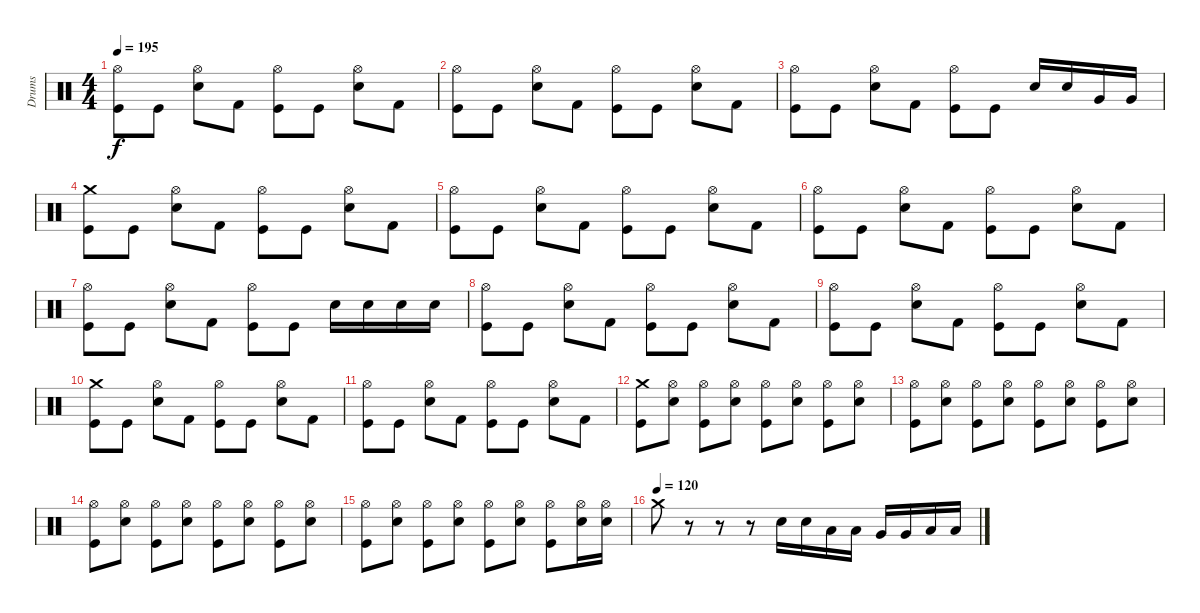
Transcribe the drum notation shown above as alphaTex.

\track ("Drums" "Drums") {instrument percussion}
\staff {score}
\articulation defaults
\ts (4 4)
\tempo 195
\clef neutral
\ks c
("Hi-Hat (open)" "Kick (hit)").8{dy f} "Kick (hit)".8 ("Hi-Hat (open)" "Electric Snare (hit)").8 "Kick (hit) 2".8 ("Hi-Hat (open)" "Kick (hit)").8 "Kick (hit)".8 ("Hi-Hat (open)" "Electric Snare (hit)").8 "Kick (hit) 2".8 |
("Hi-Hat (open)" "Kick (hit)").8 "Kick (hit)".8 ("Hi-Hat (open)" "Electric Snare (hit)").8 "Kick (hit) 2".8 ("Hi-Hat (open)" "Kick (hit)").8 "Kick (hit)".8 ("Hi-Hat (open)" "Electric Snare (hit)").8 "Kick (hit) 2".8 |
("Hi-Hat (open)" "Kick (hit)").8 "Kick (hit)".8 ("Hi-Hat (open)" "Electric Snare (hit)").8 "Kick (hit) 2".8 ("Hi-Hat (open)" "Kick (hit)").8 "Kick (hit)".8 "Electric Snare (hit)".16 "Electric Snare (hit)".16 "Very Low Tom (hit)".16 "Very Low Tom (hit)".16 |
("Crash medium (hit)" "Kick (hit)").8 "Kick (hit)".8 ("Hi-Hat (open)" "Electric Snare (hit)").8 "Kick (hit) 2".8 ("Hi-Hat (open)" "Kick (hit)").8 "Kick (hit)".8 ("Hi-Hat (open)" "Electric Snare (hit)").8 "Kick (hit) 2".8 |
("Hi-Hat (open)" "Kick (hit)").8 "Kick (hit)".8 ("Hi-Hat (open)" "Electric Snare (hit)").8 "Kick (hit) 2".8 ("Hi-Hat (open)" "Kick (hit)").8 "Kick (hit)".8 ("Hi-Hat (open)" "Electric Snare (hit)").8 "Kick (hit) 2".8 |
("Hi-Hat (open)" "Kick (hit)").8 "Kick (hit)".8 ("Hi-Hat (open)" "Electric Snare (hit)").8 "Kick (hit) 2".8 ("Hi-Hat (open)" "Kick (hit)").8 "Kick (hit)".8 ("Hi-Hat (open)" "Electric Snare (hit)").8 "Kick (hit) 2".8 |
("Hi-Hat (open)" "Kick (hit)").8 "Kick (hit)".8 ("Hi-Hat (open)" "Electric Snare (hit)").8 "Kick (hit) 2".8 ("Hi-Hat (open)" "Kick (hit)").8 "Kick (hit)".8 "Electric Snare (hit)".16 "Electric Snare (hit)".16 "Electric Snare (hit)".16 "Electric Snare (hit)".16 |
("Hi-Hat (open)" "Kick (hit)").8 "Kick (hit)".8 ("Hi-Hat (open)" "Electric Snare (hit)").8 "Kick (hit) 2".8 ("Hi-Hat (open)" "Kick (hit)").8 "Kick (hit)".8 ("Hi-Hat (open)" "Electric Snare (hit)").8 "Kick (hit) 2".8 |
("Hi-Hat (open)" "Kick (hit)").8 "Kick (hit)".8 ("Hi-Hat (open)" "Electric Snare (hit)").8 "Kick (hit) 2".8 ("Hi-Hat (open)" "Kick (hit)").8 "Kick (hit)".8 ("Hi-Hat (open)" "Electric Snare (hit)").8 "Kick (hit) 2".8 |
("Crash medium (hit)" "Kick (hit)").8 "Kick (hit)".8 ("Hi-Hat (open)" "Electric Snare (hit)").8 "Kick (hit) 2".8 ("Hi-Hat (open)" "Kick (hit)").8 "Kick (hit)".8 ("Hi-Hat (open)" "Electric Snare (hit)").8 "Kick (hit) 2".8 |
("Hi-Hat (open)" "Kick (hit)").8 "Kick (hit)".8 ("Hi-Hat (open)" "Electric Snare (hit)").8 "Kick (hit) 2".8 ("Hi-Hat (open)" "Kick (hit)").8 "Kick (hit)".8 ("Hi-Hat (open)" "Electric Snare (hit)").8 "Kick (hit) 2".8 |
("Crash medium (hit)" "Kick (hit)").8 ("Hi-Hat (open)" "Electric Snare (hit)").8 ("Hi-Hat (open)" "Kick (hit)").8 ("Hi-Hat (open)" "Electric Snare (hit)").8 ("Hi-Hat (open)" "Kick (hit)").8 ("Hi-Hat (open)" "Electric Snare (hit)").8 ("Hi-Hat (open)" "Kick (hit)").8 ("Hi-Hat (open)" "Electric Snare (hit)").8 |
("Hi-Hat (open)" "Kick (hit)").8 ("Hi-Hat (open)" "Electric Snare (hit)").8 ("Hi-Hat (open)" "Kick (hit)").8 ("Hi-Hat (open)" "Electric Snare (hit)").8 ("Hi-Hat (open)" "Kick (hit)").8 ("Hi-Hat (open)" "Electric Snare (hit)").8 ("Hi-Hat (open)" "Kick (hit)").8 ("Hi-Hat (open)" "Electric Snare (hit)").8 |
("Hi-Hat (open)" "Kick (hit)").8 ("Hi-Hat (open)" "Electric Snare (hit)").8 ("Hi-Hat (open)" "Kick (hit)").8 ("Hi-Hat (open)" "Electric Snare (hit)").8 ("Hi-Hat (open)" "Kick (hit)").8 ("Hi-Hat (open)" "Electric Snare (hit)").8 ("Hi-Hat (open)" "Kick (hit)").8 ("Hi-Hat (open)" "Electric Snare (hit)").8 |
("Hi-Hat (open)" "Kick (hit)").8 ("Hi-Hat (open)" "Electric Snare (hit)").8 ("Hi-Hat (open)" "Kick (hit)").8 ("Hi-Hat (open)" "Electric Snare (hit)").8 ("Hi-Hat (open)" "Kick (hit)").8 ("Hi-Hat (open)" "Electric Snare (hit)").8 ("Hi-Hat (open)" "Kick (hit)").8 ("Hi-Hat (open)" "Electric Snare (hit)").16 ("Hi-Hat (open)" "Electric Snare (hit)").16 |
\tempo (120)
"Crash medium (hit)".8 r.8 r.8 r.8 "Electric Snare (hit)".16 "Electric Snare (hit)".16 "Low Tom (hit)".16 "Low Tom (hit)".16 "Very Low Tom (hit)".16 "Very Low Tom (hit)".16 "Low Floor Tom (hit)".16 "Low Floor Tom (hit)".16
